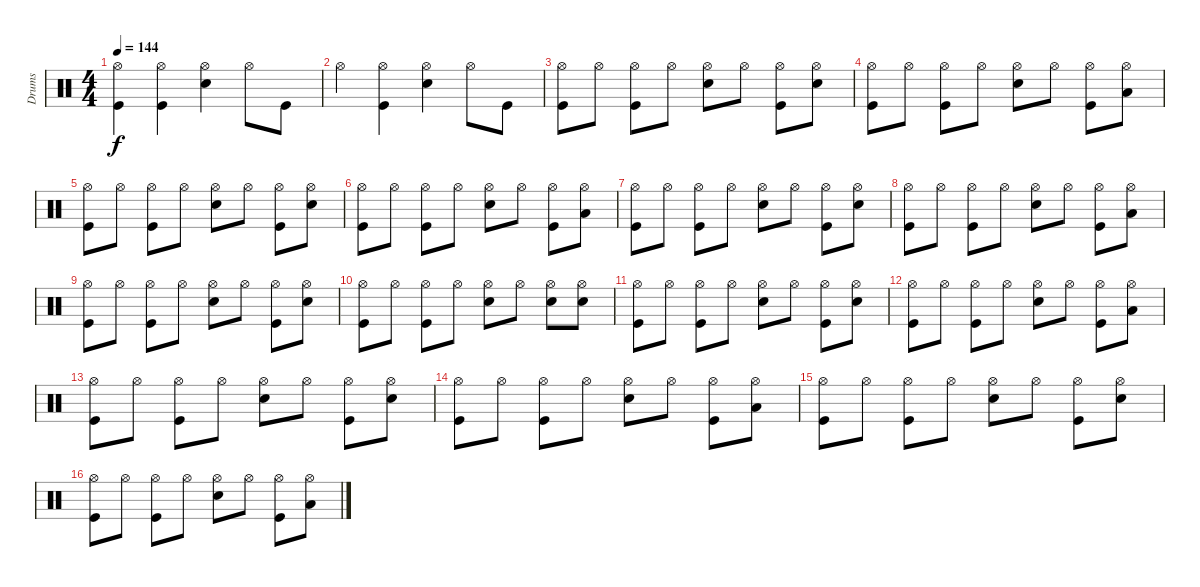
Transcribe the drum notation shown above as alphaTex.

\track ("Drums               " "Drums     ") {instrument percussion}
\staff {score}
\articulation defaults
\ts (4 4)
\tempo 144
\clef neutral
\ks c
("Kick (hit)" "Hi-Hat (open)").4{dy f} ("Kick (hit)" "Hi-Hat (open)").4 ("Snare (hit) 2" "Hi-Hat (open)").4 "Hi-Hat (open)".8 "Kick (hit)".8 |
"Hi-Hat (open)".4 ("Hi-Hat (open)" "Kick (hit)").4 ("Snare (hit) 2" "Hi-Hat (open)").4 "Hi-Hat (open)".8 "Kick (hit)".8 |
("Kick (hit)" "Hi-Hat (open)").8 "Hi-Hat (open)".8 ("Kick (hit)" "Hi-Hat (open)").8 "Hi-Hat (open)".8 ("Snare (hit) 2" "Hi-Hat (open)").8 "Hi-Hat (open)".8 ("Kick (hit)" "Hi-Hat (open)").8 ("Snare (hit) 2" "Hi-Hat (open)").8 |
("Hi-Hat (open)" "Kick (hit)").8 "Hi-Hat (open)".8 ("Kick (hit)" "Hi-Hat (open)").8 "Hi-Hat (open)".8 ("Snare (hit) 2" "Hi-Hat (open)").8 "Hi-Hat (open)".8 ("Kick (hit)" "Hi-Hat (open)").8 ("Low Tom (hit)" "Hi-Hat (open)").8 |
("Kick (hit)" "Hi-Hat (open)").8 "Hi-Hat (open)".8 ("Kick (hit)" "Hi-Hat (open)").8 "Hi-Hat (open)".8 ("Snare (hit) 2" "Hi-Hat (open)").8 "Hi-Hat (open)".8 ("Kick (hit)" "Hi-Hat (open)").8 ("Snare (hit) 2" "Hi-Hat (open)").8 |
("Kick (hit)" "Hi-Hat (open)").8 "Hi-Hat (open)".8 ("Kick (hit)" "Hi-Hat (open)").8 "Hi-Hat (open)".8 ("Snare (hit) 2" "Hi-Hat (open)").8 "Hi-Hat (open)".8 ("Kick (hit)" "Hi-Hat (open)").8 ("Low Tom (hit)" "Hi-Hat (open)").8 |
("Kick (hit)" "Hi-Hat (open)").8 "Hi-Hat (open)".8 ("Kick (hit)" "Hi-Hat (open)").8 "Hi-Hat (open)".8 ("Snare (hit) 2" "Hi-Hat (open)").8 "Hi-Hat (open)".8 ("Hi-Hat (open)" "Kick (hit)").8 ("Snare (hit) 2" "Hi-Hat (open)").8 |
("Kick (hit)" "Hi-Hat (open)").8 "Hi-Hat (open)".8 ("Kick (hit)" "Hi-Hat (open)").8 "Hi-Hat (open)".8 ("Snare (hit) 2" "Hi-Hat (open)").8 "Hi-Hat (open)".8 ("Kick (hit)" "Hi-Hat (open)").8 ("Low Tom (hit)" "Hi-Hat (open)").8 |
("Kick (hit)" "Hi-Hat (open)").8 "Hi-Hat (open)".8 ("Kick (hit)" "Hi-Hat (open)").8 "Hi-Hat (open)".8 ("Snare (hit) 2" "Hi-Hat (open)").8 "Hi-Hat (open)".8 ("Hi-Hat (open)" "Kick (hit)").8 ("Snare (hit) 2" "Hi-Hat (open)").8 |
("Kick (hit)" "Hi-Hat (open)").8 "Hi-Hat (open)".8 ("Kick (hit)" "Hi-Hat (open)").8 "Hi-Hat (open)".8 ("Snare (hit) 2" "Hi-Hat (open)").8 "Hi-Hat (open)".8 ("Hi-Hat (open)" "Snare (hit) 2").8 ("Snare (hit) 2" "Hi-Hat (open)").8 |
("Kick (hit)" "Hi-Hat (open)").8 "Hi-Hat (open)".8 ("Kick (hit)" "Hi-Hat (open)").8 "Hi-Hat (open)".8 ("Snare (hit) 2" "Hi-Hat (open)").8 "Hi-Hat (open)".8 ("Kick (hit)" "Hi-Hat (open)").8 ("Snare (hit) 2" "Hi-Hat (open)").8 |
("Hi-Hat (open)" "Kick (hit)").8 "Hi-Hat (open)".8 ("Kick (hit)" "Hi-Hat (open)").8 "Hi-Hat (open)".8 ("Snare (hit) 2" "Hi-Hat (open)").8 "Hi-Hat (open)".8 ("Kick (hit)" "Hi-Hat (open)").8 ("Low Tom (hit)" "Hi-Hat (open)").8 |
("Kick (hit)" "Hi-Hat (open)").8 "Hi-Hat (open)".8 ("Kick (hit)" "Hi-Hat (open)").8 "Hi-Hat (open)".8 ("Snare (hit) 2" "Hi-Hat (open)").8 "Hi-Hat (open)".8 ("Kick (hit)" "Hi-Hat (open)").8 ("Snare (hit) 2" "Hi-Hat (open)").8 |
("Kick (hit)" "Hi-Hat (open)").8 "Hi-Hat (open)".8 ("Kick (hit)" "Hi-Hat (open)").8 "Hi-Hat (open)".8 ("Snare (hit) 2" "Hi-Hat (open)").8 "Hi-Hat (open)".8 ("Kick (hit)" "Hi-Hat (open)").8 ("Low Tom (hit)" "Hi-Hat (open)").8 |
("Kick (hit)" "Hi-Hat (open)").8 "Hi-Hat (open)".8 ("Kick (hit)" "Hi-Hat (open)").8 "Hi-Hat (open)".8 ("Snare (hit) 2" "Hi-Hat (open)").8 "Hi-Hat (open)".8 ("Hi-Hat (open)" "Kick (hit)").8 ("Snare (hit) 2" "Hi-Hat (open)").8 |
("Kick (hit)" "Hi-Hat (open)").8 "Hi-Hat (open)".8 ("Kick (hit)" "Hi-Hat (open)").8 "Hi-Hat (open)".8 ("Snare (hit) 2" "Hi-Hat (open)").8 "Hi-Hat (open)".8 ("Kick (hit)" "Hi-Hat (open)").8 ("Low Tom (hit)" "Hi-Hat (open)").8
